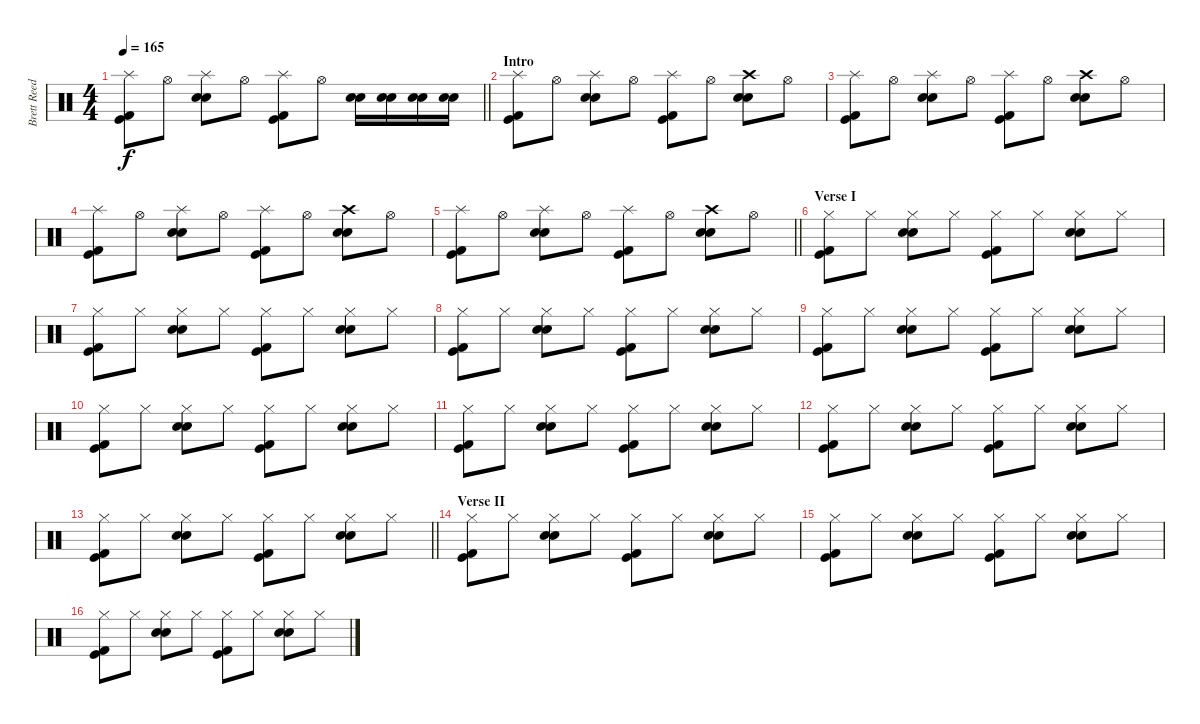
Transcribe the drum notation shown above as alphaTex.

\track ("Brett Reed" "Brett Reed") {instrument percussion}
\staff {score}
\articulation defaults
\ts (4 4)
\tempo 165
\clef neutral
\barLineRight lightlight
\ks c
("Splash (hit)" "Kick (hit) 2" "Kick (hit)").8{dy f} "Hi-Hat (open)".8 ("Splash (hit)" "Electric Snare (hit)" "Snare (hit) 2").8 "Hi-Hat (open)".8 ("Splash (hit)" "Kick (hit) 2" "Kick (hit)").8 "Hi-Hat (open)".8 ("Electric Snare (hit)" "Snare (hit) 2").16 ("Electric Snare (hit)" "Snare (hit) 2").16 ("Electric Snare (hit)" "Snare (hit) 2").16 ("Electric Snare (hit)" "Snare (hit) 2").16 |
\section ("" "Intro")
("Splash (hit)" "Kick (hit) 2" "Kick (hit)").8 "Hi-Hat (open)".8 ("Splash (hit)" "Electric Snare (hit)" "Snare (hit) 2").8 "Hi-Hat (open)".8 ("Splash (hit)" "Kick (hit) 2" "Kick (hit)").8 "Hi-Hat (open)".8 ("Crash high (hit)" "Electric Snare (hit)" "Snare (hit) 2").8 "Hi-Hat (open)".8 |
("Splash (hit)" "Kick (hit) 2" "Kick (hit)").8 "Hi-Hat (open)".8 ("Splash (hit)" "Electric Snare (hit)" "Snare (hit) 2").8 "Hi-Hat (open)".8 ("Splash (hit)" "Kick (hit) 2" "Kick (hit)").8 "Hi-Hat (open)".8 ("Crash high (hit)" "Electric Snare (hit)" "Snare (hit) 2").8 "Hi-Hat (open)".8 |
("Splash (hit)" "Kick (hit) 2" "Kick (hit)").8 "Hi-Hat (open)".8 ("Splash (hit)" "Electric Snare (hit)" "Snare (hit) 2").8 "Hi-Hat (open)".8 ("Splash (hit)" "Kick (hit) 2" "Kick (hit)").8 "Hi-Hat (open)".8 ("Crash high (hit)" "Electric Snare (hit)" "Snare (hit) 2").8 "Hi-Hat (open)".8 |
\barLineRight lightlight
("Splash (hit)" "Kick (hit) 2" "Kick (hit)").8 "Hi-Hat (open)".8 ("Splash (hit)" "Electric Snare (hit)" "Snare (hit) 2").8 "Hi-Hat (open)".8 ("Splash (hit)" "Kick (hit) 2" "Kick (hit)").8 "Hi-Hat (open)".8 ("Crash high (hit)" "Electric Snare (hit)" "Snare (hit) 2").8 "Hi-Hat (open)".8 |
\section ("" "Verse I")
("Hi-Hat (closed)" "Kick (hit) 2" "Kick (hit)").8 "Hi-Hat (closed)".8 ("Hi-Hat (closed)" "Electric Snare (hit)" "Snare (hit) 2").8 "Hi-Hat (closed)".8 ("Hi-Hat (closed)" "Kick (hit) 2" "Kick (hit)").8 "Hi-Hat (closed)".8 ("Hi-Hat (closed)" "Electric Snare (hit)" "Snare (hit) 2").8 "Hi-Hat (closed)".8 |
("Hi-Hat (closed)" "Kick (hit) 2" "Kick (hit)").8 "Hi-Hat (closed)".8 ("Hi-Hat (closed)" "Electric Snare (hit)" "Snare (hit) 2").8 "Hi-Hat (closed)".8 ("Hi-Hat (closed)" "Kick (hit) 2" "Kick (hit)").8 "Hi-Hat (closed)".8 ("Hi-Hat (closed)" "Electric Snare (hit)" "Snare (hit) 2").8 "Hi-Hat (closed)".8 |
("Hi-Hat (closed)" "Kick (hit) 2" "Kick (hit)").8 "Hi-Hat (closed)".8 ("Hi-Hat (closed)" "Electric Snare (hit)" "Snare (hit) 2").8 "Hi-Hat (closed)".8 ("Hi-Hat (closed)" "Kick (hit) 2" "Kick (hit)").8 "Hi-Hat (closed)".8 ("Hi-Hat (closed)" "Electric Snare (hit)" "Snare (hit) 2").8 "Hi-Hat (closed)".8 |
("Hi-Hat (closed)" "Kick (hit) 2" "Kick (hit)").8 "Hi-Hat (closed)".8 ("Hi-Hat (closed)" "Electric Snare (hit)" "Snare (hit) 2").8 "Hi-Hat (closed)".8 ("Hi-Hat (closed)" "Kick (hit) 2" "Kick (hit)").8 "Hi-Hat (closed)".8 ("Hi-Hat (closed)" "Electric Snare (hit)" "Snare (hit) 2").8 "Hi-Hat (closed)".8 |
("Hi-Hat (closed)" "Kick (hit) 2" "Kick (hit)").8 "Hi-Hat (closed)".8 ("Hi-Hat (closed)" "Electric Snare (hit)" "Snare (hit) 2").8 "Hi-Hat (closed)".8 ("Hi-Hat (closed)" "Kick (hit) 2" "Kick (hit)").8 "Hi-Hat (closed)".8 ("Hi-Hat (closed)" "Electric Snare (hit)" "Snare (hit) 2").8 "Hi-Hat (closed)".8 |
("Hi-Hat (closed)" "Kick (hit) 2" "Kick (hit)").8 "Hi-Hat (closed)".8 ("Hi-Hat (closed)" "Electric Snare (hit)" "Snare (hit) 2").8 "Hi-Hat (closed)".8 ("Hi-Hat (closed)" "Kick (hit) 2" "Kick (hit)").8 "Hi-Hat (closed)".8 ("Hi-Hat (closed)" "Electric Snare (hit)" "Snare (hit) 2").8 "Hi-Hat (closed)".8 |
("Hi-Hat (closed)" "Kick (hit) 2" "Kick (hit)").8 "Hi-Hat (closed)".8 ("Hi-Hat (closed)" "Electric Snare (hit)" "Snare (hit) 2").8 "Hi-Hat (closed)".8 ("Hi-Hat (closed)" "Kick (hit) 2" "Kick (hit)").8 "Hi-Hat (closed)".8 ("Hi-Hat (closed)" "Electric Snare (hit)" "Snare (hit) 2").8 "Hi-Hat (closed)".8 |
\barLineRight lightlight
("Hi-Hat (closed)" "Kick (hit) 2" "Kick (hit)").8 "Hi-Hat (closed)".8 ("Hi-Hat (closed)" "Electric Snare (hit)" "Snare (hit) 2").8 "Hi-Hat (closed)".8 ("Hi-Hat (closed)" "Kick (hit) 2" "Kick (hit)").8 "Hi-Hat (closed)".8 ("Hi-Hat (closed)" "Electric Snare (hit)" "Snare (hit) 2").8 "Hi-Hat (closed)".8 |
\section ("" "Verse II")
("Hi-Hat (closed)" "Kick (hit) 2" "Kick (hit)").8 "Hi-Hat (closed)".8 ("Hi-Hat (closed)" "Electric Snare (hit)" "Snare (hit) 2").8 "Hi-Hat (closed)".8 ("Hi-Hat (closed)" "Kick (hit) 2" "Kick (hit)").8 "Hi-Hat (closed)".8 ("Hi-Hat (closed)" "Electric Snare (hit)" "Snare (hit) 2").8 "Hi-Hat (closed)".8 |
("Hi-Hat (closed)" "Kick (hit) 2" "Kick (hit)").8 "Hi-Hat (closed)".8 ("Hi-Hat (closed)" "Electric Snare (hit)" "Snare (hit) 2").8 "Hi-Hat (closed)".8 ("Hi-Hat (closed)" "Kick (hit) 2" "Kick (hit)").8 "Hi-Hat (closed)".8 ("Hi-Hat (closed)" "Electric Snare (hit)" "Snare (hit) 2").8 "Hi-Hat (closed)".8 |
("Hi-Hat (closed)" "Kick (hit) 2" "Kick (hit)").8 "Hi-Hat (closed)".8 ("Hi-Hat (closed)" "Electric Snare (hit)" "Snare (hit) 2").8 "Hi-Hat (closed)".8 ("Hi-Hat (closed)" "Kick (hit) 2" "Kick (hit)").8 "Hi-Hat (closed)".8 ("Hi-Hat (closed)" "Electric Snare (hit)" "Snare (hit) 2").8 "Hi-Hat (closed)".8
